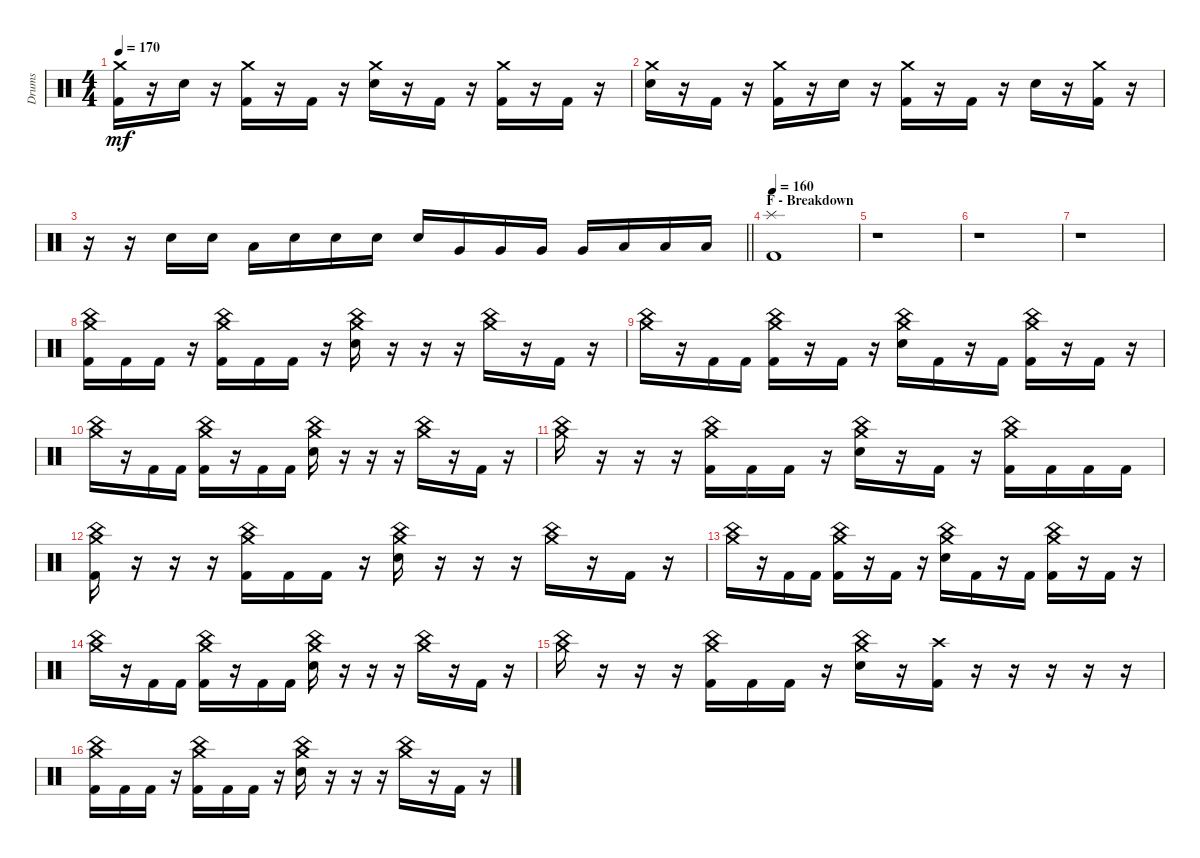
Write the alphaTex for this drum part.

\track ("Drums" "Drums") {instrument percussion}
\staff {score}
\articulation defaults
\ts (4 4)
\tempo 170
\clef neutral
\ks c
("Crash medium (hit)" "Kick (hit) 2").16{dy mf} r.16 "Electric Snare (hit)".16 r.16 ("Crash medium (hit)" "Kick (hit) 2").16 r.16 "Kick (hit) 2".16 r.16 ("Crash medium (hit)" "Electric Snare (hit)").16 r.16 "Kick (hit) 2".16 r.16 ("Crash medium (hit)" "Kick (hit) 2").16 r.16 "Kick (hit) 2".16 r.16 |
("Crash medium (hit)" "Electric Snare (hit)").16 r.16 "Kick (hit) 2".16 r.16 ("Crash medium (hit)" "Kick (hit) 2").16 r.16 "Electric Snare (hit)".16 r.16 ("Crash medium (hit)" "Kick (hit) 2").16 r.16 "Kick (hit) 2".16 r.16 "Electric Snare (hit)".16 r.16 ("Crash medium (hit)" "Kick (hit) 2").16 r.16 |
\barLineRight lightlight
r.16 r.16 "Electric Snare (hit)".16 "Electric Snare (hit)".16 "Low Tom (hit)".16 "Electric Snare (hit)".16 "Electric Snare (hit)".16 "Electric Snare (hit)".16 "Electric Snare (hit)".16 "Very Low Tom (hit)".16 "Very Low Tom (hit)".16 "Very Low Tom (hit)".16 "Very Low Tom (hit)".16 "Low Floor Tom (hit)".16 "Low Floor Tom (hit)".16 "Low Floor Tom (hit)".16 |
\section ("" "F - Breakdown")
\tempo 160
("Splash (hit)" "Kick (hit) 2").1 |
r.1 |
r.1 |
r.1 |
("Crash medium (hit)" "China (hit)" "Kick (hit) 2").16 "Kick (hit) 2".16 "Kick (hit) 2".16 r.16 ("Crash medium (hit)" "China (hit)" "Kick (hit) 2").16 "Kick (hit) 2".16 "Kick (hit) 2".16 r.16 ("Crash medium (hit)" "China (hit)" "Electric Snare (hit)").16 r.16 r.16 r.16 ("Crash medium (hit)" "China (hit)").16 r.16 "Kick (hit) 2".16 r.16 |
("Crash medium (hit)" "China (hit)").16 r.16 "Kick (hit) 2".16 "Kick (hit) 2".16 ("Crash medium (hit)" "China (hit)" "Kick (hit) 2").16 r.16 "Kick (hit) 2".16 r.16 ("Crash medium (hit)" "China (hit)" "Electric Snare (hit)").16 "Kick (hit) 2".16 r.16 "Kick (hit) 2".16 ("Crash medium (hit)" "China (hit)" "Kick (hit) 2").16 r.16 "Kick (hit) 2".16 r.16 |
("Crash medium (hit)" "China (hit)").16 r.16 "Kick (hit) 2".16 "Kick (hit) 2".16 ("Crash medium (hit)" "China (hit)" "Kick (hit) 2").16 r.16 "Kick (hit) 2".16 "Kick (hit) 2".16 ("Crash medium (hit)" "China (hit)" "Electric Snare (hit)").16 r.16 r.16 r.16 ("Crash medium (hit)" "China (hit)").16 r.16 "Kick (hit) 2".16 r.16 |
("Crash medium (hit)" "China (hit)").16 r.16 r.16 r.16 ("Crash medium (hit)" "China (hit)" "Kick (hit) 2").16 "Kick (hit) 2".16 "Kick (hit) 2".16 r.16 ("Crash medium (hit)" "China (hit)" "Electric Snare (hit)").16 r.16 "Kick (hit) 2".16 r.16 ("Crash medium (hit)" "China (hit)" "Kick (hit) 2").16 "Kick (hit) 2".16 "Kick (hit) 2".16 "Kick (hit) 2".16 |
("Crash medium (hit)" "China (hit)" "Kick (hit) 2").16 r.16 r.16 r.16 ("Crash medium (hit)" "China (hit)" "Kick (hit) 2").16 "Kick (hit) 2".16 "Kick (hit) 2".16 r.16 ("Crash medium (hit)" "China (hit)" "Electric Snare (hit)").16 r.16 r.16 r.16 ("Crash medium (hit)" "China (hit)").16 r.16 "Kick (hit) 2".16 r.16 |
("Crash medium (hit)" "China (hit)").16 r.16 "Kick (hit) 2".16 "Kick (hit) 2".16 ("Crash medium (hit)" "China (hit)" "Kick (hit) 2").16 r.16 "Kick (hit) 2".16 r.16 ("Crash medium (hit)" "China (hit)" "Electric Snare (hit)").16 "Kick (hit) 2".16 r.16 "Kick (hit) 2".16 ("Crash medium (hit)" "China (hit)" "Kick (hit) 2").16 r.16 "Kick (hit) 2".16 r.16 |
("Crash medium (hit)" "China (hit)").16 r.16 "Kick (hit) 2".16 "Kick (hit) 2".16 ("Crash medium (hit)" "China (hit)" "Kick (hit) 2").16 r.16 "Kick (hit) 2".16 "Kick (hit) 2".16 ("Crash medium (hit)" "China (hit)" "Electric Snare (hit)").16 r.16 r.16 r.16 ("Crash medium (hit)" "China (hit)").16 r.16 "Kick (hit) 2".16 r.16 |
("Crash medium (hit)" "China (hit)").16 r.16 r.16 r.16 ("Crash medium (hit)" "China (hit)" "Kick (hit) 2").16 "Kick (hit) 2".16 "Kick (hit) 2".16 r.16 ("Crash medium (hit)" "China (hit)" "Electric Snare (hit)").16 r.16 ("Crash high (hit)" "Kick (hit) 2").16 r.16 r.16 r.16 r.16 r.16 |
("Crash medium (hit)" "China (hit)" "Kick (hit) 2").16 "Kick (hit) 2".16 "Kick (hit) 2".16 r.16 ("Crash medium (hit)" "China (hit)" "Kick (hit) 2").16 "Kick (hit) 2".16 "Kick (hit) 2".16 r.16 ("Crash medium (hit)" "China (hit)" "Electric Snare (hit)").16 r.16 r.16 r.16 ("Crash medium (hit)" "China (hit)").16 r.16 "Kick (hit) 2".16 r.16
